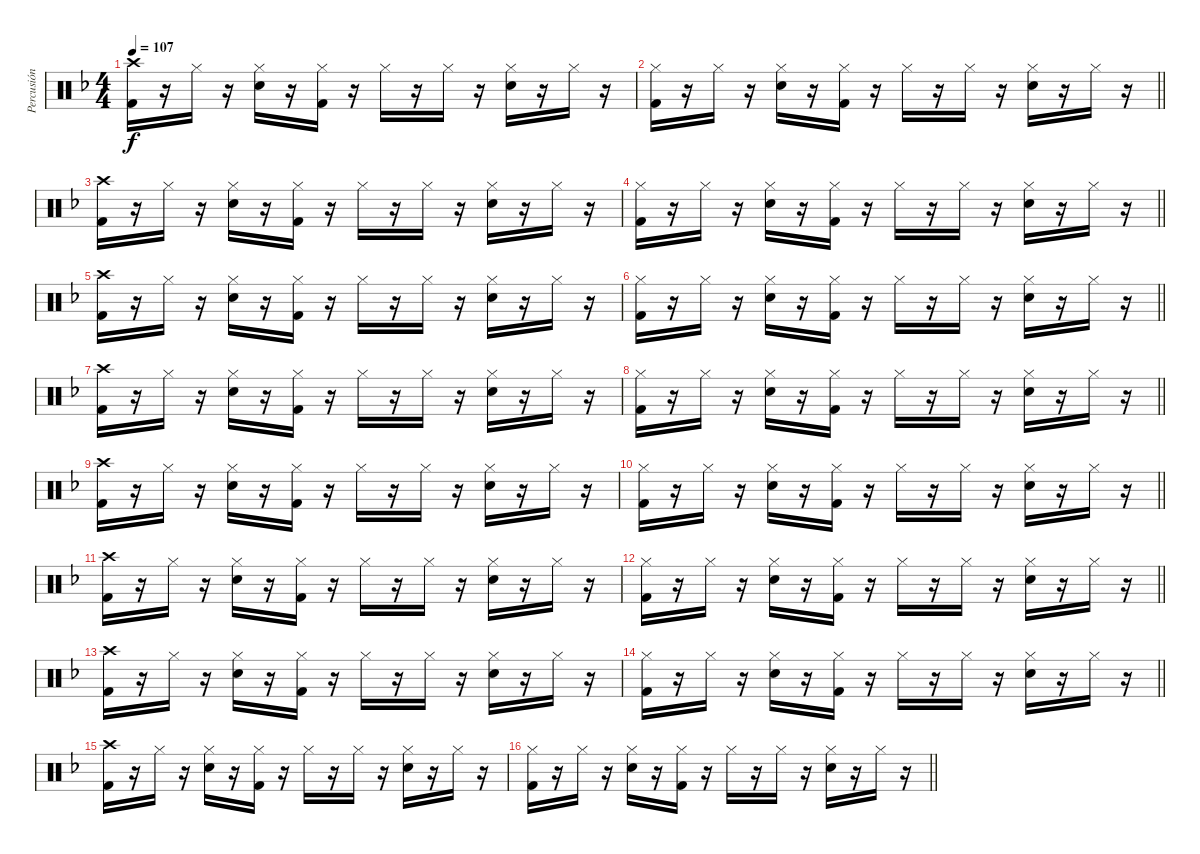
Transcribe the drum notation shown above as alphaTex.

\track ("Percusión" "Percusión") {instrument percussion}
\staff {score}
\articulation defaults
\ts (4 4)
\tempo 107
\clef neutral
\ks f
("Crash high (hit)" "Kick (hit) 2").16{dy f} r.16 "Hi-Hat (closed)".16 r.16 ("Hi-Hat (closed)" "Snare (hit) 2").16 r.16 ("Hi-Hat (closed)" "Kick (hit) 2").16 r.16 "Hi-Hat (closed)".16 r.16 "Hi-Hat (closed)".16 r.16 ("Hi-Hat (closed)" "Snare (hit) 2").16 r.16 "Hi-Hat (closed)".16 r.16 |
\barLineRight lightlight
("Hi-Hat (closed)" "Kick (hit) 2").16 r.16 "Hi-Hat (closed)".16 r.16 ("Hi-Hat (closed)" "Snare (hit) 2").16 r.16 ("Hi-Hat (closed)" "Kick (hit) 2").16 r.16 "Hi-Hat (closed)".16 r.16 "Hi-Hat (closed)".16 r.16 ("Hi-Hat (closed)" "Snare (hit) 2").16 r.16 "Hi-Hat (closed)".16 r.16 |
("Crash high (hit)" "Kick (hit) 2").16 r.16 "Hi-Hat (closed)".16 r.16 ("Hi-Hat (closed)" "Snare (hit) 2").16 r.16 ("Hi-Hat (closed)" "Kick (hit) 2").16 r.16 "Hi-Hat (closed)".16 r.16 "Hi-Hat (closed)".16 r.16 ("Hi-Hat (closed)" "Snare (hit) 2").16 r.16 "Hi-Hat (closed)".16 r.16 |
\barLineRight lightlight
("Hi-Hat (closed)" "Kick (hit) 2").16 r.16 "Hi-Hat (closed)".16 r.16 ("Hi-Hat (closed)" "Snare (hit) 2").16 r.16 ("Hi-Hat (closed)" "Kick (hit) 2").16 r.16 "Hi-Hat (closed)".16 r.16 "Hi-Hat (closed)".16 r.16 ("Hi-Hat (closed)" "Snare (hit) 2").16 r.16 "Hi-Hat (closed)".16 r.16 |
("Crash high (hit)" "Kick (hit) 2").16 r.16 "Hi-Hat (closed)".16 r.16 ("Hi-Hat (closed)" "Snare (hit) 2").16 r.16 ("Hi-Hat (closed)" "Kick (hit) 2").16 r.16 "Hi-Hat (closed)".16 r.16 "Hi-Hat (closed)".16 r.16 ("Hi-Hat (closed)" "Snare (hit) 2").16 r.16 "Hi-Hat (closed)".16 r.16 |
\barLineRight lightlight
("Hi-Hat (closed)" "Kick (hit) 2").16 r.16 "Hi-Hat (closed)".16 r.16 ("Hi-Hat (closed)" "Snare (hit) 2").16 r.16 ("Hi-Hat (closed)" "Kick (hit) 2").16 r.16 "Hi-Hat (closed)".16 r.16 "Hi-Hat (closed)".16 r.16 ("Hi-Hat (closed)" "Snare (hit) 2").16 r.16 "Hi-Hat (closed)".16 r.16 |
("Crash high (hit)" "Kick (hit) 2").16 r.16 "Hi-Hat (closed)".16 r.16 ("Hi-Hat (closed)" "Snare (hit) 2").16 r.16 ("Hi-Hat (closed)" "Kick (hit) 2").16 r.16 "Hi-Hat (closed)".16 r.16 "Hi-Hat (closed)".16 r.16 ("Hi-Hat (closed)" "Snare (hit) 2").16 r.16 "Hi-Hat (closed)".16 r.16 |
\barLineRight lightlight
("Hi-Hat (closed)" "Kick (hit) 2").16 r.16 "Hi-Hat (closed)".16 r.16 ("Hi-Hat (closed)" "Snare (hit) 2").16 r.16 ("Hi-Hat (closed)" "Kick (hit) 2").16 r.16 "Hi-Hat (closed)".16 r.16 "Hi-Hat (closed)".16 r.16 ("Hi-Hat (closed)" "Snare (hit) 2").16 r.16 "Hi-Hat (closed)".16 r.16 |
("Crash high (hit)" "Kick (hit) 2").16 r.16 "Hi-Hat (closed)".16 r.16 ("Hi-Hat (closed)" "Snare (hit) 2").16 r.16 ("Hi-Hat (closed)" "Kick (hit) 2").16 r.16 "Hi-Hat (closed)".16 r.16 "Hi-Hat (closed)".16 r.16 ("Hi-Hat (closed)" "Snare (hit) 2").16 r.16 "Hi-Hat (closed)".16 r.16 |
\barLineRight lightlight
("Hi-Hat (closed)" "Kick (hit) 2").16 r.16 "Hi-Hat (closed)".16 r.16 ("Hi-Hat (closed)" "Snare (hit) 2").16 r.16 ("Hi-Hat (closed)" "Kick (hit) 2").16 r.16 "Hi-Hat (closed)".16 r.16 "Hi-Hat (closed)".16 r.16 ("Hi-Hat (closed)" "Snare (hit) 2").16 r.16 "Hi-Hat (closed)".16 r.16 |
("Crash high (hit)" "Kick (hit) 2").16 r.16 "Hi-Hat (closed)".16 r.16 ("Hi-Hat (closed)" "Snare (hit) 2").16 r.16 ("Hi-Hat (closed)" "Kick (hit) 2").16 r.16 "Hi-Hat (closed)".16 r.16 "Hi-Hat (closed)".16 r.16 ("Hi-Hat (closed)" "Snare (hit) 2").16 r.16 "Hi-Hat (closed)".16 r.16 |
\barLineRight lightlight
("Hi-Hat (closed)" "Kick (hit) 2").16 r.16 "Hi-Hat (closed)".16 r.16 ("Hi-Hat (closed)" "Snare (hit) 2").16 r.16 ("Hi-Hat (closed)" "Kick (hit) 2").16 r.16 "Hi-Hat (closed)".16 r.16 "Hi-Hat (closed)".16 r.16 ("Hi-Hat (closed)" "Snare (hit) 2").16 r.16 "Hi-Hat (closed)".16 r.16 |
("Crash high (hit)" "Kick (hit) 2").16 r.16 "Hi-Hat (closed)".16 r.16 ("Hi-Hat (closed)" "Snare (hit) 2").16 r.16 ("Hi-Hat (closed)" "Kick (hit) 2").16 r.16 "Hi-Hat (closed)".16 r.16 "Hi-Hat (closed)".16 r.16 ("Hi-Hat (closed)" "Snare (hit) 2").16 r.16 "Hi-Hat (closed)".16 r.16 |
\barLineRight lightlight
("Hi-Hat (closed)" "Kick (hit) 2").16 r.16 "Hi-Hat (closed)".16 r.16 ("Hi-Hat (closed)" "Snare (hit) 2").16 r.16 ("Hi-Hat (closed)" "Kick (hit) 2").16 r.16 "Hi-Hat (closed)".16 r.16 "Hi-Hat (closed)".16 r.16 ("Hi-Hat (closed)" "Snare (hit) 2").16 r.16 "Hi-Hat (closed)".16 r.16 |
("Crash high (hit)" "Kick (hit) 2").16 r.16 "Hi-Hat (closed)".16 r.16 ("Hi-Hat (closed)" "Snare (hit) 2").16 r.16 ("Hi-Hat (closed)" "Kick (hit) 2").16 r.16 "Hi-Hat (closed)".16 r.16 "Hi-Hat (closed)".16 r.16 ("Hi-Hat (closed)" "Snare (hit) 2").16 r.16 "Hi-Hat (closed)".16 r.16 |
\barLineRight lightlight
("Hi-Hat (closed)" "Kick (hit) 2").16 r.16 "Hi-Hat (closed)".16 r.16 ("Hi-Hat (closed)" "Snare (hit) 2").16 r.16 ("Hi-Hat (closed)" "Kick (hit) 2").16 r.16 "Hi-Hat (closed)".16 r.16 "Hi-Hat (closed)".16 r.16 ("Hi-Hat (closed)" "Snare (hit) 2").16 r.16 "Hi-Hat (closed)".16 r.16
